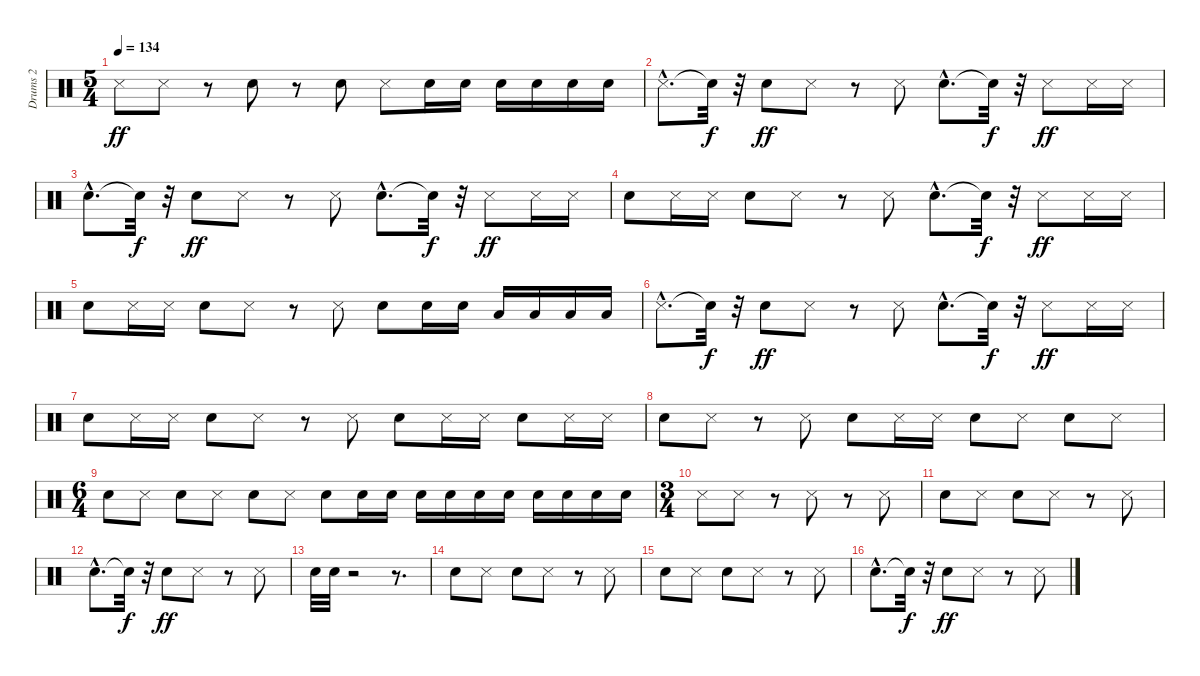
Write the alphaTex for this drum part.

\track ("Drums 2" "Drums 2") {instrument percussion}
\staff {score}
\articulation defaults
\ts (5 4)
\tempo 134
\clef neutral
\ks c "Metronome (hit)".8{dy ff} "Metronome (hit)".8
r.8 "Snare (hit) 2".8 r.8 "Snare (hit) 2".8 "Metronome (hit)".8 "Snare (hit) 2".16 "Snare (hit) 2".16 "Snare (hit) 2".16 "Snare (hit) 2".16 "Snare (hit) 2".16 "Snare (hit) 2".16 |
"Metronome (hit)"{hac}.8{d} "Snare (hit)"{t}.32{dy f} r.32 "Snare (hit) 2".8{dy ff} "Metronome (hit)".8 r.8 "Metronome (hit)".8 "Snare (hit) 2"{hac}.8{d} "Snare (hit)"{t}.32{dy f} r.32 "Metronome (hit)".8{dy ff} "Metronome (hit)".16 "Metronome (hit)".16 |
"Snare (hit) 2"{hac}.8{d} "Snare (hit)"{t}.32{dy f} r.32 "Snare (hit) 2".8{dy ff} "Metronome (hit)".8 r.8 "Metronome (hit)".8 "Snare (hit) 2"{hac}.8{d} "Snare (hit)"{t}.32{dy f} r.32 "Metronome (hit)".8{dy ff} "Metronome (hit)".16 "Metronome (hit)".16 |
"Snare (hit) 2".8 "Metronome (hit)".16 "Metronome (hit)".16 "Snare (hit) 2".8 "Metronome (hit)".8 r.8 "Metronome (hit)".8 "Snare (hit) 2"{hac}.8{d} "Snare (hit)"{t}.32{dy f} r.32 "Metronome (hit)".8{dy ff} "Metronome (hit)".16 "Metronome (hit)".16 |
"Snare (hit) 2".8 "Metronome (hit)".16 "Metronome (hit)".16 "Snare (hit) 2".8 "Metronome (hit)".8 r.8 "Metronome (hit)".8 "Snare (hit) 2".8 "Snare (hit) 2".16 "Snare (hit) 2".16 "Low Tom (hit)".16 "Low Tom (hit)".16 "Low Floor Tom (hit)".16 "Low Floor Tom (hit)".16 |
"Metronome (hit)"{hac}.8{d} "Snare (hit)"{t}.32{dy f} r.32 "Snare (hit) 2".8{dy ff} "Metronome (hit)".8 r.8 "Metronome (hit)".8 "Snare (hit) 2"{hac}.8{d} "Snare (hit)"{t}.32{dy f} r.32 "Metronome (hit)".8{dy ff} "Metronome (hit)".16 "Metronome (hit)".16 |
"Snare (hit) 2".8 "Metronome (hit)".16 "Metronome (hit)".16 "Snare (hit) 2".8 "Metronome (hit)".8 r.8 "Metronome (hit)".8 "Snare (hit) 2".8 "Metronome (hit)".16 "Metronome (hit)".16 "Snare (hit) 2".8 "Metronome (hit)".16 "Metronome (hit)".16 |
"Snare (hit) 2".8 "Metronome (hit)".8 r.8 "Metronome (hit)".8 "Snare (hit) 2".8 "Metronome (hit)".16 "Metronome (hit)".16 "Snare (hit) 2".8 "Metronome (hit)".8 "Snare (hit) 2".8 "Metronome (hit)".8 |
\ts (6 4)
"Snare (hit) 2".8 "Metronome (hit)".8 "Snare (hit) 2".8 "Metronome (hit)".8 "Snare (hit) 2".8 "Metronome (hit)".8 "Snare (hit) 2".8 "Snare (hit) 2".16 "Snare (hit) 2".16 "Snare (hit) 2".16 "Snare (hit) 2".16 "Snare (hit) 2".16 "Snare (hit) 2".16 "Snare (hit) 2".16 "Snare (hit) 2".16 "Snare (hit) 2".16 "Snare (hit) 2".16 |
\ts (3 4)
"Metronome (hit)".8 "Metronome (hit)".8 r.8 "Metronome (hit)".8 r.8 "Metronome (hit)".8 |
"Snare (hit) 2".8 "Metronome (hit)".8 "Snare (hit) 2".8 "Metronome (hit)".8 r.8 "Metronome (hit)".8 |
"Snare (hit) 2"{hac}.8{d} "Snare (hit)"{t}.32{dy f} r.32 "Snare (hit) 2".8{dy ff} "Metronome (hit)".8 r.8 "Metronome (hit)".8 |
"Snare (hit) 2".32 "Snare (hit) 2".32 r.2 r.8{d} |
"Snare (hit) 2".8 "Metronome (hit)".8 "Snare (hit) 2".8 "Metronome (hit)".8 r.8 "Metronome (hit)".8 |
"Snare (hit) 2".8 "Metronome (hit)".8 "Snare (hit) 2".8 "Metronome (hit)".8 r.8 "Metronome (hit)".8 |
"Snare (hit) 2"{hac}.8{d} "Snare (hit)"{t}.32{dy f} r.32 "Snare (hit) 2".8{dy ff} "Metronome (hit)".8 r.8 "Metronome (hit)".8
